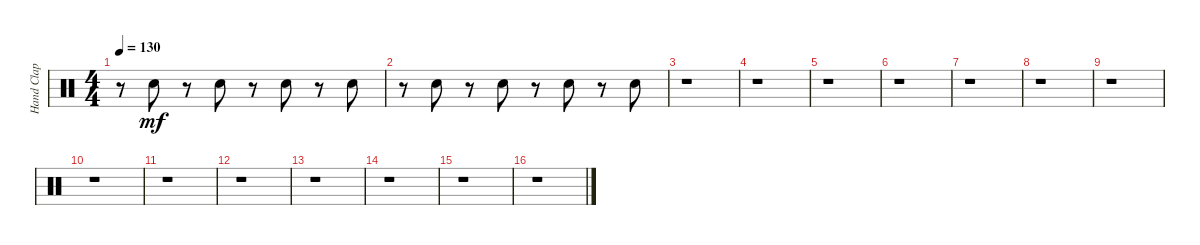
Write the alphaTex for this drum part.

\track ("Hand Clap" "Hand Clap") {instrument percussion}
\staff {score}
\articulation defaults
\ts (4 4)
\tempo 130
\clef neutral
\ks c
r.8{dy mf} "Hand Clap (hit)".8 r.8 "Hand Clap (hit)".8 r.8 "Hand Clap (hit)".8 r.8 "Hand Clap (hit)".8 |
r.8 "Hand Clap (hit)".8 r.8 "Hand Clap (hit)".8 r.8 "Hand Clap (hit)".8 r.8 "Hand Clap (hit)".8 |
r.1 |
r.1 |
r.1 |
r.1 |
r.1 |
r.1 |
r.1 |
r.1 |
r.1 |
r.1 |
r.1 |
r.1 |
r.1 |
r.1
